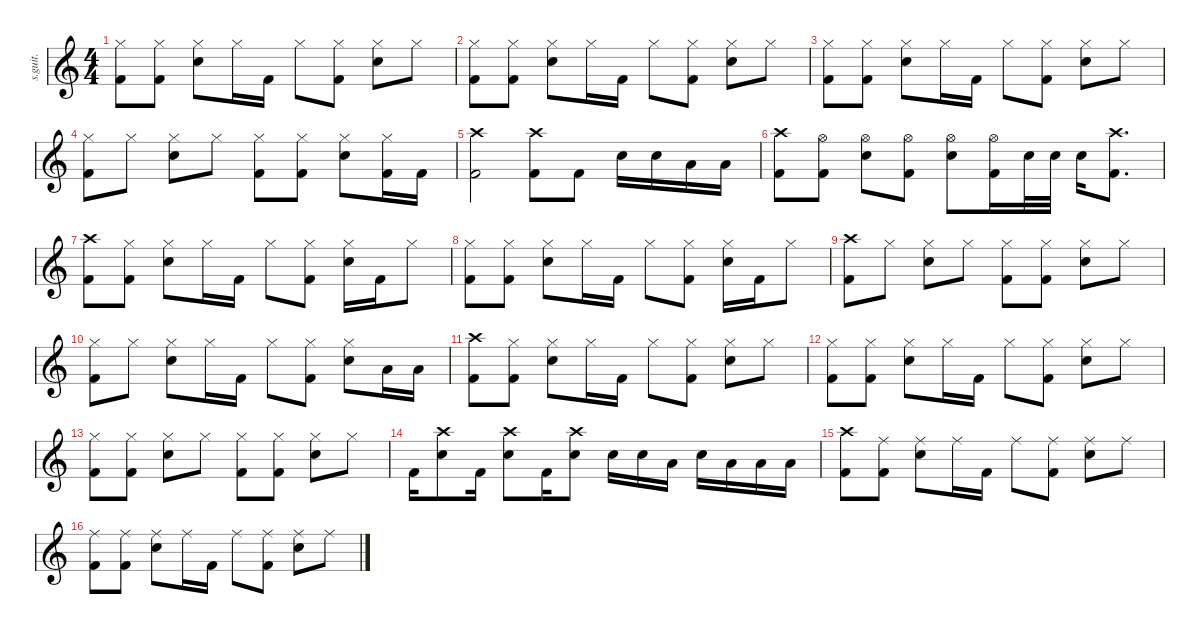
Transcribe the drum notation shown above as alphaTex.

\defaultSystemsLayout 4
\hideDynamics
\bracketExtendMode nobrackets
\track ("" "s.guit.") {instrument percussion}
\staff {score}
\articulation defaults
\ts (4 4)
\tempo (82 hide)
\clef g2
\ks c
("Hi-Hat (closed)" "Kick (hit) 2").8{dy f} ("Hi-Hat (closed)" "Kick (hit) 2").8 ("Hi-Hat (closed)" "Snare (hit) 2").8 "Hi-Hat (closed)".16 "Kick (hit) 2".16 "Hi-Hat (closed)".8 ("Hi-Hat (closed)" "Kick (hit) 2").8 ("Hi-Hat (closed)" "Snare (hit) 2").8 "Hi-Hat (closed)".8 |
("Hi-Hat (closed)" "Kick (hit) 2").8 ("Hi-Hat (closed)" "Kick (hit) 2").8 ("Hi-Hat (closed)" "Snare (hit) 2").8 "Hi-Hat (closed)".16 "Kick (hit) 2".16 "Hi-Hat (closed)".8 ("Hi-Hat (closed)" "Kick (hit) 2").8 ("Hi-Hat (closed)" "Snare (hit) 2").8 "Hi-Hat (closed)".8 |
("Hi-Hat (closed)" "Kick (hit) 2").8 ("Hi-Hat (closed)" "Kick (hit) 2").8 ("Hi-Hat (closed)" "Snare (hit) 2").8 "Hi-Hat (closed)".16 "Kick (hit) 2".16 "Hi-Hat (closed)".8 ("Hi-Hat (closed)" "Kick (hit) 2").8 ("Hi-Hat (closed)" "Snare (hit) 2").8 "Hi-Hat (closed)".8 |
("Hi-Hat (closed)" "Kick (hit) 2").8 "Hi-Hat (closed)".8 ("Hi-Hat (closed)" "Snare (hit) 2").8 "Hi-Hat (closed)".8 ("Hi-Hat (closed)" "Kick (hit) 2").8 ("Hi-Hat (closed)" "Kick (hit) 2").8 ("Hi-Hat (closed)" "Snare (hit) 2").8 ("Hi-Hat (closed)" "Kick (hit) 2").16 "Kick (hit) 2".16 |
("Crash high (hit)" "Kick (hit) 2").2 ("Crash high (hit)" "Kick (hit) 2").8 "Kick (hit) 2".8 "Snare (hit) 2".16 "Snare (hit) 2".16 "Low Tom (hit)".16 "Low Tom (hit)".16 |
("Crash high (hit)" "Kick (hit) 2").8 ("Hi-Hat (open)" "Kick (hit) 2").8 ("Hi-Hat (open)" "Snare (hit) 2").8 ("Hi-Hat (open)" "Kick (hit) 2").8 ("Hi-Hat (open)" "Snare (hit) 2").8 ("Hi-Hat (open)" "Kick (hit) 2").16 "Snare (hit) 2".32 "Snare (hit) 2".32 "Snare (hit) 2".16 ("Crash high (hit)" "Kick (hit) 2").8{d} |
("Crash high (hit)" "Kick (hit) 2").8 ("Hi-Hat (closed)" "Kick (hit) 2").8 ("Hi-Hat (closed)" "Snare (hit) 2").8 "Hi-Hat (closed)".16 "Kick (hit) 2".16 "Hi-Hat (closed)".8 ("Hi-Hat (closed)" "Kick (hit) 2").8 ("Hi-Hat (closed)" "Snare (hit) 2").16 "Kick (hit) 2".16 "Hi-Hat (closed)".8 |
("Hi-Hat (closed)" "Kick (hit) 2").8 ("Hi-Hat (closed)" "Kick (hit) 2").8 ("Hi-Hat (closed)" "Snare (hit) 2").8 "Hi-Hat (closed)".16 "Kick (hit) 2".16 "Hi-Hat (closed)".8 ("Hi-Hat (closed)" "Kick (hit) 2").8 ("Hi-Hat (closed)" "Snare (hit) 2").16 "Kick (hit) 2".16 "Hi-Hat (closed)".8 |
("Crash high (hit)" "Kick (hit) 2").8 "Hi-Hat (closed)".8 ("Hi-Hat (closed)" "Snare (hit) 2").8 "Hi-Hat (closed)".8 ("Hi-Hat (closed)" "Kick (hit) 2").8 ("Hi-Hat (closed)" "Kick (hit) 2").8 ("Hi-Hat (closed)" "Snare (hit) 2").8 "Hi-Hat (closed)".8 |
("Hi-Hat (closed)" "Kick (hit) 2").8 "Hi-Hat (closed)".8 ("Hi-Hat (closed)" "Snare (hit) 2").8 "Hi-Hat (closed)".16 "Kick (hit) 2".16 "Hi-Hat (closed)".8 ("Hi-Hat (closed)" "Kick (hit) 2").8 ("Hi-Hat (closed)" "Snare (hit) 2").8 "Low Tom (hit)".16 "Low Tom (hit)".16 |
("Crash high (hit)" "Kick (hit) 2").8 ("Hi-Hat (closed)" "Kick (hit) 2").8 ("Hi-Hat (closed)" "Snare (hit) 2").8 "Hi-Hat (closed)".16 "Kick (hit) 2".16 "Hi-Hat (closed)".8 ("Hi-Hat (closed)" "Kick (hit) 2").8 ("Hi-Hat (closed)" "Snare (hit) 2").8 "Hi-Hat (closed)".8 |
("Hi-Hat (closed)" "Kick (hit) 2").8 ("Hi-Hat (closed)" "Kick (hit) 2").8 ("Hi-Hat (closed)" "Snare (hit) 2").8 "Hi-Hat (closed)".16 "Kick (hit) 2".16 "Hi-Hat (closed)".8 ("Hi-Hat (closed)" "Kick (hit) 2").8 ("Hi-Hat (closed)" "Snare (hit) 2").8 "Hi-Hat (closed)".8 |
("Hi-Hat (closed)" "Kick (hit) 2").8 ("Hi-Hat (closed)" "Kick (hit) 2").8 ("Hi-Hat (closed)" "Snare (hit) 2").8 "Hi-Hat (closed)".8 ("Hi-Hat (closed)" "Kick (hit) 2").8 ("Hi-Hat (closed)" "Kick (hit) 2").8 ("Hi-Hat (closed)" "Snare (hit) 2").8 "Hi-Hat (closed)".8 |
"Kick (hit) 2".16 ("Crash high (hit)" "Snare (hit) 2").8 "Kick (hit) 2".16 ("Crash high (hit)" "Snare (hit) 2").8 "Kick (hit) 2".16 ("Crash high (hit)" "Snare (hit) 2").8 "Snare (hit) 2".16 "Snare (hit) 2".16 "Low Tom (hit)".16 "Snare (hit) 2".16 "Low Tom (hit)".16 "Low Tom (hit)".16 "Low Floor Tom (hit)".16 |
("Crash high (hit)" "Kick (hit) 2").8 ("Ride (middle)" "Kick (hit) 2").8 ("Ride (middle)" "Snare (hit) 2").8 "Ride (middle)".16 "Kick (hit) 2".16 "Ride (middle)".8 ("Ride (middle)" "Kick (hit) 2").8 ("Ride (middle)" "Snare (hit) 2").8 "Ride (middle)".8 |
("Ride (middle)" "Kick (hit) 2").8 ("Ride (middle)" "Kick (hit) 2").8 ("Ride (middle)" "Snare (hit) 2").8 "Ride (middle)".16 "Kick (hit) 2".16 "Ride (middle)".8 ("Ride (middle)" "Kick (hit) 2").8 ("Ride (middle)" "Snare (hit) 2").8 "Ride (middle)".8
